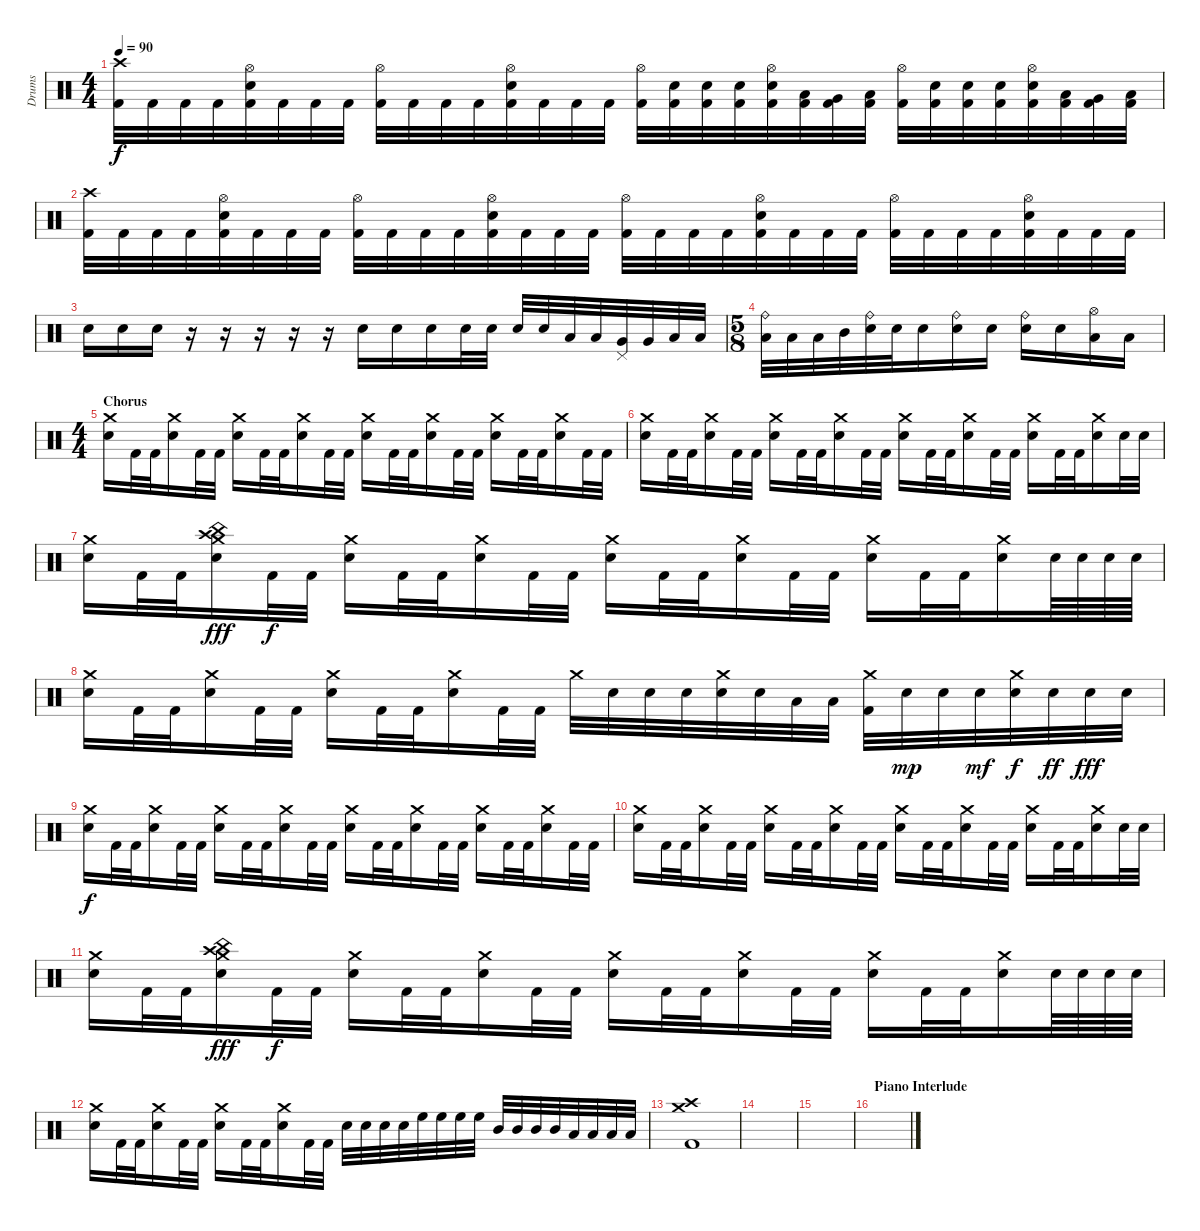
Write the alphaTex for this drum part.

\track ("Drums" "Drums") {instrument percussion}
\staff {score}
\articulation defaults
\ts (4 4)
\tempo 90
\clef neutral
\ks c
("Crash high (hit)" "Kick (hit) 2").32{dy f} "Kick (hit) 2".32 "Kick (hit) 2".32 "Kick (hit) 2".32 ("Hi-Hat (open)" "Electric Snare (hit)" "Kick (hit) 2").32 "Kick (hit) 2".32 "Kick (hit) 2".32 "Kick (hit) 2".32 ("Hi-Hat (open)" "Kick (hit) 2").32 "Kick (hit) 2".32 "Kick (hit) 2".32 "Kick (hit) 2".32 ("Hi-Hat (open)" "Electric Snare (hit)" "Kick (hit) 2").32 "Kick (hit) 2".32 "Kick (hit) 2".32 "Kick (hit) 2".32 ("Hi-Hat (open)" "Kick (hit) 2").32 ("Electric Snare (hit)" "Kick (hit) 2").32 ("Electric Snare (hit)" "Kick (hit) 2").32 ("Electric Snare (hit)" "Kick (hit) 2").32 ("Hi-Hat (open)" "Electric Snare (hit)" "Kick (hit) 2").32 ("Low Tom (hit)" "Kick (hit) 2").32 ("Very Low Tom (hit)" "Kick (hit) 2").32 ("Low Floor Tom (hit)" "Kick (hit) 2").32 ("Hi-Hat (open)" "Kick (hit) 2").32 ("Electric Snare (hit)" "Kick (hit) 2").32 ("Electric Snare (hit)" "Kick (hit) 2").32 ("Electric Snare (hit)" "Kick (hit) 2").32 ("Hi-Hat (open)" "Electric Snare (hit)" "Kick (hit) 2").32 ("Low Tom (hit)" "Kick (hit) 2").32 ("Very Low Tom (hit)" "Kick (hit) 2").32 ("Low Floor Tom (hit)" "Kick (hit) 2").32 |
("Crash high (hit)" "Kick (hit) 2").32 "Kick (hit) 2".32 "Kick (hit) 2".32 "Kick (hit) 2".32 ("Hi-Hat (open)" "Electric Snare (hit)" "Kick (hit) 2").32 "Kick (hit) 2".32 "Kick (hit) 2".32 "Kick (hit) 2".32 ("Hi-Hat (open)" "Kick (hit) 2").32 "Kick (hit) 2".32 "Kick (hit) 2".32 "Kick (hit) 2".32 ("Hi-Hat (open)" "Electric Snare (hit)" "Kick (hit) 2").32 "Kick (hit) 2".32 "Kick (hit) 2".32 "Kick (hit) 2".32 ("Hi-Hat (open)" "Kick (hit) 2").32 "Kick (hit) 2".32 "Kick (hit) 2".32 "Kick (hit) 2".32 ("Hi-Hat (open)" "Electric Snare (hit)" "Kick (hit) 2").32 "Kick (hit) 2".32 "Kick (hit) 2".32 "Kick (hit) 2".32 ("Hi-Hat (open)" "Kick (hit) 2").32 "Kick (hit) 2".32 "Kick (hit) 2".32 "Kick (hit) 2".32 ("Hi-Hat (open)" "Electric Snare (hit)" "Kick (hit) 2").32 "Kick (hit) 2".32 "Kick (hit) 2".32 "Kick (hit) 2".32 |
"Electric Snare (hit)".16 "Electric Snare (hit)".16 "Electric Snare (hit)".16 r.16 r.16 r.16 r.16 r.16 "Electric Snare (hit)".16 "Electric Snare (hit)".16 "Electric Snare (hit)".16 "Electric Snare (hit)".32 "Electric Snare (hit)".32 "Electric Snare (hit)".32 "Electric Snare (hit)".32 "Low Tom (hit)".32 "Low Tom (hit)".32 ("Pedal Hi-Hat (hit)" "Very Low Tom (hit)").32 "Very Low Tom (hit)".32 "Low Floor Tom (hit)".32 "Low Floor Tom (hit)".32 |
\ts (5 8)
("Ride (bell)" "Low Tom (hit)").32 "Low Tom (hit)".32 "Low Tom (hit)".32 "Mid Tom (hit)".32 ("Ride (bell)" "Electric Snare (hit)").32 "Electric Snare (hit)".32 "Electric Snare (hit)".16 ("Ride (bell)" "Electric Snare (hit)").16 "Electric Snare (hit)".16 ("Ride (bell)" "Electric Snare (hit)").16 "Electric Snare (hit)".16 ("Hi-Hat (open)" "Low Tom (hit)").16 "Low Floor Tom (hit)".16 |
\ts (4 4)
\section ("" "Chorus")
("Crash medium (hit)" "Electric Snare (hit)").16 "Kick (hit) 2".32 "Kick (hit) 2".32 ("Crash medium (hit)" "Electric Snare (hit)").16 "Kick (hit) 2".32 "Kick (hit) 2".32 ("Crash medium (hit)" "Electric Snare (hit)").16 "Kick (hit) 2".32 "Kick (hit) 2".32 ("Crash medium (hit)" "Electric Snare (hit)").16 "Kick (hit) 2".32 "Kick (hit) 2".32 ("Crash medium (hit)" "Electric Snare (hit)").16 "Kick (hit) 2".32 "Kick (hit) 2".32 ("Crash medium (hit)" "Electric Snare (hit)").16 "Kick (hit) 2".32 "Kick (hit) 2".32 ("Crash medium (hit)" "Electric Snare (hit)").16 "Kick (hit) 2".32 "Kick (hit) 2".32 ("Crash medium (hit)" "Electric Snare (hit)").16 "Kick (hit) 2".32 "Kick (hit) 2".32 |
("Crash medium (hit)" "Electric Snare (hit)").16 "Kick (hit) 2".32 "Kick (hit) 2".32 ("Crash medium (hit)" "Electric Snare (hit)").16 "Kick (hit) 2".32 "Kick (hit) 2".32 ("Crash medium (hit)" "Electric Snare (hit)").16 "Kick (hit) 2".32 "Kick (hit) 2".32 ("Crash medium (hit)" "Electric Snare (hit)").16 "Kick (hit) 2".32 "Kick (hit) 2".32 ("Crash medium (hit)" "Electric Snare (hit)").16 "Kick (hit) 2".32 "Kick (hit) 2".32 ("Crash medium (hit)" "Electric Snare (hit)").16 "Kick (hit) 2".32 "Kick (hit) 2".32 ("Crash medium (hit)" "Electric Snare (hit)").16 "Kick (hit) 2".32 "Kick (hit) 2".32 ("Crash medium (hit)" "Electric Snare (hit)").16 "Electric Snare (hit)".32 "Electric Snare (hit)".32 |
("Crash medium (hit)" "Electric Snare (hit)").16 "Kick (hit) 2".32 "Kick (hit) 2".32 ("Crash high (hit)" "China (hit)" "Electric Snare (hit)" "Crash medium (hit)").16{dy fff} "Kick (hit) 2".32{dy f} "Kick (hit) 2".32 ("Crash medium (hit)" "Electric Snare (hit)").16 "Kick (hit) 2".32 "Kick (hit) 2".32 ("Crash medium (hit)" "Electric Snare (hit)").16 "Kick (hit) 2".32 "Kick (hit) 2".32 ("Crash medium (hit)" "Electric Snare (hit)").16 "Kick (hit) 2".32 "Kick (hit) 2".32 ("Crash medium (hit)" "Electric Snare (hit)").16 "Kick (hit) 2".32 "Kick (hit) 2".32 ("Crash medium (hit)" "Electric Snare (hit)").16 "Kick (hit) 2".32 "Kick (hit) 2".32 ("Crash medium (hit)" "Electric Snare (hit)").16 "Electric Snare (hit)".64 "Electric Snare (hit)".64 "Electric Snare (hit)".64 "Electric Snare (hit)".64 |
("Crash medium (hit)" "Electric Snare (hit)").16 "Kick (hit) 2".32 "Kick (hit) 2".32 ("Crash medium (hit)" "Electric Snare (hit)").16 "Kick (hit) 2".32 "Kick (hit) 2".32 ("Crash medium (hit)" "Electric Snare (hit)").16 "Kick (hit) 2".32 "Kick (hit) 2".32 ("Crash medium (hit)" "Electric Snare (hit)").16 "Kick (hit) 2".32 "Kick (hit) 2".32 "Crash medium (hit)".32 "Electric Snare (hit)".32 "Electric Snare (hit)".32 "Electric Snare (hit)".32 ("Crash medium (hit)" "Electric Snare (hit)").32 "Electric Snare (hit)".32 "Low Tom (hit)".32 "Low Tom (hit)".32 ("Crash medium (hit)" "Kick (hit) 2").32 "Electric Snare (hit)".32{dy mp} "Electric Snare (hit)".32 "Electric Snare (hit)".32{dy mf} ("Crash medium (hit)" "Electric Snare (hit)").32{dy f} "Electric Snare (hit)".32{dy ff} "Electric Snare (hit)".32{dy fff} "Electric Snare (hit)".32 |
("Crash medium (hit)" "Electric Snare (hit)").16{dy f} "Kick (hit) 2".32 "Kick (hit) 2".32 ("Crash medium (hit)" "Electric Snare (hit)").16 "Kick (hit) 2".32 "Kick (hit) 2".32 ("Crash medium (hit)" "Electric Snare (hit)").16 "Kick (hit) 2".32 "Kick (hit) 2".32 ("Crash medium (hit)" "Electric Snare (hit)").16 "Kick (hit) 2".32 "Kick (hit) 2".32 ("Crash medium (hit)" "Electric Snare (hit)").16 "Kick (hit) 2".32 "Kick (hit) 2".32 ("Crash medium (hit)" "Electric Snare (hit)").16 "Kick (hit) 2".32 "Kick (hit) 2".32 ("Crash medium (hit)" "Electric Snare (hit)").16 "Kick (hit) 2".32 "Kick (hit) 2".32 ("Crash medium (hit)" "Electric Snare (hit)").16 "Kick (hit) 2".32 "Kick (hit) 2".32 |
("Crash medium (hit)" "Electric Snare (hit)").16 "Kick (hit) 2".32 "Kick (hit) 2".32 ("Crash medium (hit)" "Electric Snare (hit)").16 "Kick (hit) 2".32 "Kick (hit) 2".32 ("Crash medium (hit)" "Electric Snare (hit)").16 "Kick (hit) 2".32 "Kick (hit) 2".32 ("Crash medium (hit)" "Electric Snare (hit)").16 "Kick (hit) 2".32 "Kick (hit) 2".32 ("Crash medium (hit)" "Electric Snare (hit)").16 "Kick (hit) 2".32 "Kick (hit) 2".32 ("Crash medium (hit)" "Electric Snare (hit)").16 "Kick (hit) 2".32 "Kick (hit) 2".32 ("Crash medium (hit)" "Electric Snare (hit)").16 "Kick (hit) 2".32 "Kick (hit) 2".32 ("Crash medium (hit)" "Electric Snare (hit)").16 "Electric Snare (hit)".32 "Electric Snare (hit)".32 |
("Crash medium (hit)" "Electric Snare (hit)").16 "Kick (hit) 2".32 "Kick (hit) 2".32 ("Crash high (hit)" "China (hit)" "Electric Snare (hit)" "Crash medium (hit)").16{dy fff} "Kick (hit) 2".32{dy f} "Kick (hit) 2".32 ("Crash medium (hit)" "Electric Snare (hit)").16 "Kick (hit) 2".32 "Kick (hit) 2".32 ("Crash medium (hit)" "Electric Snare (hit)").16 "Kick (hit) 2".32 "Kick (hit) 2".32 ("Crash medium (hit)" "Electric Snare (hit)").16 "Kick (hit) 2".32 "Kick (hit) 2".32 ("Crash medium (hit)" "Electric Snare (hit)").16 "Kick (hit) 2".32 "Kick (hit) 2".32 ("Crash medium (hit)" "Electric Snare (hit)").16 "Kick (hit) 2".32 "Kick (hit) 2".32 ("Crash medium (hit)" "Electric Snare (hit)").16 "Electric Snare (hit)".64 "Electric Snare (hit)".64 "Electric Snare (hit)".64 "Electric Snare (hit)".64 |
("Crash medium (hit)" "Electric Snare (hit)").16 "Kick (hit) 2".32 "Kick (hit) 2".32 ("Crash medium (hit)" "Electric Snare (hit)").16 "Kick (hit) 2".32 "Kick (hit) 2".32 ("Crash medium (hit)" "Electric Snare (hit)").16 "Kick (hit) 2".32 "Kick (hit) 2".32 ("Crash medium (hit)" "Electric Snare (hit)").16 "Kick (hit) 2".32 "Kick (hit) 2".32 "Electric Snare (hit)".32 "Electric Snare (hit)".32 "Electric Snare (hit)".32 "Electric Snare (hit)".32 "High Floor Tom (hit)".32 "High Floor Tom (hit)".32 "High Floor Tom (hit)".32 "High Floor Tom (hit)".32 "Mid Tom (hit)".32 "Mid Tom (hit)".32 "Mid Tom (hit)".32 "Mid Tom (hit)".32 "Low Tom (hit)".32 "Low Tom (hit)".32 "Low Tom (hit)".32 "Low Tom (hit)".32 |
("Crash high (hit)" "Crash medium (hit)" "Kick (hit) 2").1 |
|
|
\section ("" "Piano Interlude")
